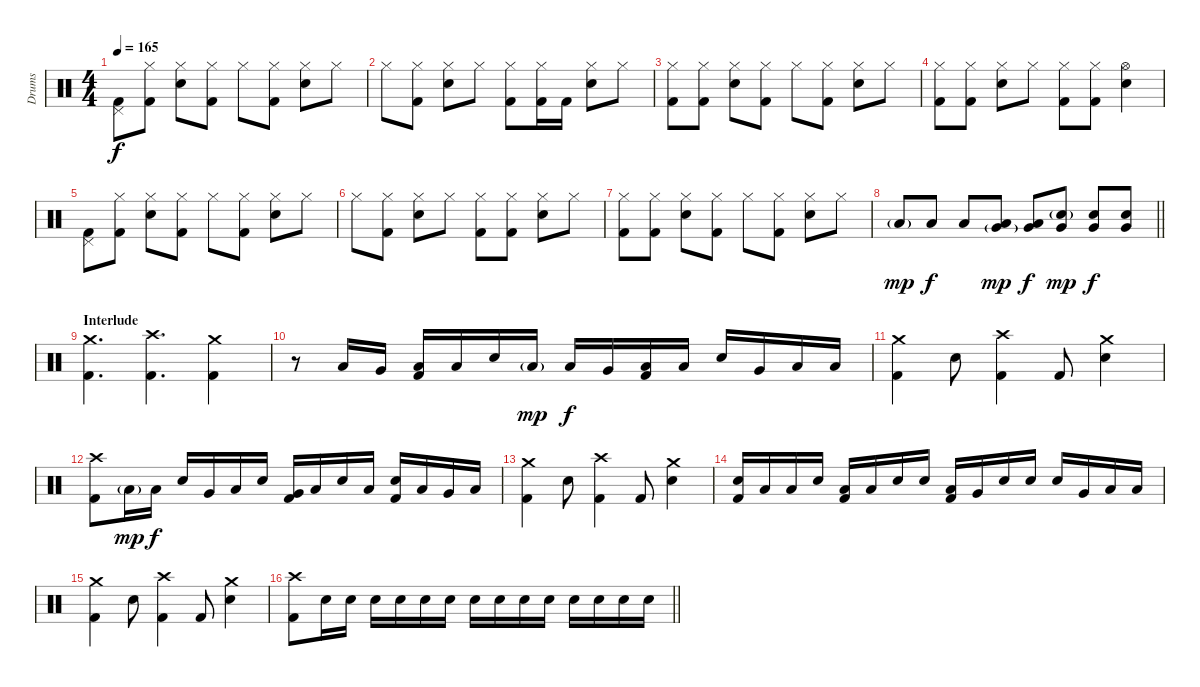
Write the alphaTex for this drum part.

\track ("Drums" "Drums") {instrument percussion}
\staff {score}
\articulation defaults
\ts (4 4)
\tempo 165
\clef neutral
\ks c
("Pedal Hi-Hat (hit)" "Kick (hit) 2").8{dy f} ("Hi-Hat (closed)" "Kick (hit) 2").8 ("Hi-Hat (closed)" "Electric Snare (hit)").8 ("Hi-Hat (closed)" "Kick (hit) 2").8 "Hi-Hat (closed)".8 ("Hi-Hat (closed)" "Kick (hit) 2").8 ("Hi-Hat (closed)" "Electric Snare (hit)").8 "Hi-Hat (closed)".8 |
"Hi-Hat (closed)".8 ("Hi-Hat (closed)" "Kick (hit) 2").8 ("Hi-Hat (closed)" "Electric Snare (hit)").8 "Hi-Hat (closed)".8 ("Hi-Hat (closed)" "Kick (hit) 2").8 ("Hi-Hat (closed)" "Kick (hit) 2").16 "Kick (hit) 2".16 ("Hi-Hat (closed)" "Electric Snare (hit)").8 "Hi-Hat (closed)".8 |
("Hi-Hat (closed)" "Kick (hit) 2").8 ("Hi-Hat (closed)" "Kick (hit) 2").8 ("Hi-Hat (closed)" "Electric Snare (hit)").8 ("Hi-Hat (closed)" "Kick (hit) 2").8 "Hi-Hat (closed)".8 ("Hi-Hat (closed)" "Kick (hit) 2").8 ("Hi-Hat (closed)" "Electric Snare (hit)").8 "Hi-Hat (closed)".8 |
("Hi-Hat (closed)" "Kick (hit) 2").8 ("Hi-Hat (closed)" "Kick (hit) 2").8 ("Hi-Hat (closed)" "Electric Snare (hit)").8 "Hi-Hat (closed)".8 ("Hi-Hat (closed)" "Kick (hit) 2").8 ("Hi-Hat (closed)" "Kick (hit) 2").8 ("Hi-Hat (open)" "Electric Snare (hit)").4 |
("Pedal Hi-Hat (hit)" "Kick (hit) 2").8 ("Hi-Hat (closed)" "Kick (hit) 2").8 ("Hi-Hat (closed)" "Electric Snare (hit)").8 ("Hi-Hat (closed)" "Kick (hit) 2").8 "Hi-Hat (closed)".8 ("Hi-Hat (closed)" "Kick (hit) 2").8 ("Hi-Hat (closed)" "Electric Snare (hit)").8 "Hi-Hat (closed)".8 |
"Hi-Hat (closed)".8 ("Hi-Hat (closed)" "Kick (hit) 2").8 ("Hi-Hat (closed)" "Electric Snare (hit)").8 "Hi-Hat (closed)".8 ("Hi-Hat (closed)" "Kick (hit) 2").8 ("Hi-Hat (closed)" "Kick (hit) 2").8 ("Hi-Hat (closed)" "Electric Snare (hit)").8 "Hi-Hat (closed)".8 |
("Hi-Hat (closed)" "Kick (hit) 2").8 ("Hi-Hat (closed)" "Kick (hit) 2").8 ("Hi-Hat (closed)" "Electric Snare (hit)").8 ("Hi-Hat (closed)" "Kick (hit) 2").8 "Hi-Hat (closed)".8 ("Hi-Hat (closed)" "Kick (hit) 2").8 ("Hi-Hat (closed)" "Electric Snare (hit)").8 "Hi-Hat (closed)".8 |
\barLineRight lightlight "Low Floor Tom (hit)"{g}.8{dy mp} "Low Floor Tom (hit)".8{dy f} "Low Floor Tom (hit)".8
("Very Low Tom (hit)"{g} "Low Floor Tom (hit)").8{dy mp} ("Very Low Tom (hit)" "Low Floor Tom (hit)").8{dy f} ("Very Low Tom (hit)" "Electric Snare (hit)"{g}).8{dy mp} ("Very Low Tom (hit)" "Electric Snare (hit)").8{dy f} ("Very Low Tom (hit)" "Electric Snare (hit)").8 |
\section ("" "Interlude")
("Crash medium (hit)" "Kick (hit) 2").4{d} ("Crash high (hit)" "Kick (hit) 2").4{d} ("Crash medium (hit)" "Kick (hit) 2").4 |
r.8 "Low Floor Tom (hit)".16 "Very Low Tom (hit)".16 ("Low Floor Tom (hit)" "Kick (hit) 2").16 "Low Tom (hit)".16 "Electric Snare (hit)".16 "Low Floor Tom (hit)"{g}.16{dy mp} "Low Floor Tom (hit)".16{dy f} "Very Low Tom (hit)".16 ("Low Floor Tom (hit)" "Kick (hit) 2").16 "Low Tom (hit)".16 "Electric Snare (hit)".16 "Very Low Tom (hit)".16 "Low Floor Tom (hit)".16 "Low Floor Tom (hit)".16 |
("Crash medium (hit)" "Kick (hit) 2").4 "Electric Snare (hit)".8 ("Crash high (hit)" "Kick (hit) 2").4 "Kick (hit) 2".8 ("Crash medium (hit)" "Electric Snare (hit)").4 |
("Crash high (hit)" "Kick (hit) 2").8 "Low Tom (hit)"{g}.16{dy mp} "Low Tom (hit)".16{dy f} "Electric Snare (hit)".16 "Very Low Tom (hit)".16 "Low Floor Tom (hit)".16 "Electric Snare (hit)".16 ("Very Low Tom (hit)" "Kick (hit) 2").16 "Low Floor Tom (hit)".16 "Electric Snare (hit)".16 "Low Tom (hit)".16 ("Electric Snare (hit)" "Kick (hit) 2").16 "Low Tom (hit)".16 "Very Low Tom (hit)".16 "Low Floor Tom (hit)".16 |
("Crash medium (hit)" "Kick (hit) 2").4 "Electric Snare (hit)".8 ("Crash high (hit)" "Kick (hit) 2").4 "Kick (hit) 2".8 ("Crash medium (hit)" "Electric Snare (hit)").4 |
("Electric Snare (hit)" "Kick (hit) 2").16 "Low Floor Tom (hit)".16 "Low Floor Tom (hit)".16 "Electric Snare (hit)".16 ("Low Floor Tom (hit)" "Kick (hit) 2").16 "Low Tom (hit)".16 "Electric Snare (hit)".16 "Electric Snare (hit)".16 ("Low Tom (hit)" "Kick (hit) 2").16 "Very Low Tom (hit)".16 "Electric Snare (hit)".16 "Electric Snare (hit)".16 "Electric Snare (hit)".16 "Very Low Tom (hit)".16 "Low Floor Tom (hit)".16 "Low Floor Tom (hit)".16 |
("Crash medium (hit)" "Kick (hit) 2").4 "Electric Snare (hit)".8 ("Crash high (hit)" "Kick (hit) 2").4 "Kick (hit) 2".8 ("Crash medium (hit)" "Electric Snare (hit)").4 |
\barLineRight lightlight
("Crash high (hit)" "Kick (hit) 2").8 "Electric Snare (hit)".16 "Electric Snare (hit)".16 "Electric Snare (hit)".16 "Electric Snare (hit)".16 "Electric Snare (hit)".16 "Electric Snare (hit)".16 "Electric Snare (hit)".16 "Electric Snare (hit)".16 "Electric Snare (hit)".16 "Electric Snare (hit)".16 "Electric Snare (hit)".16 "Electric Snare (hit)".16 "Electric Snare (hit)".16 "Electric Snare (hit)".16
